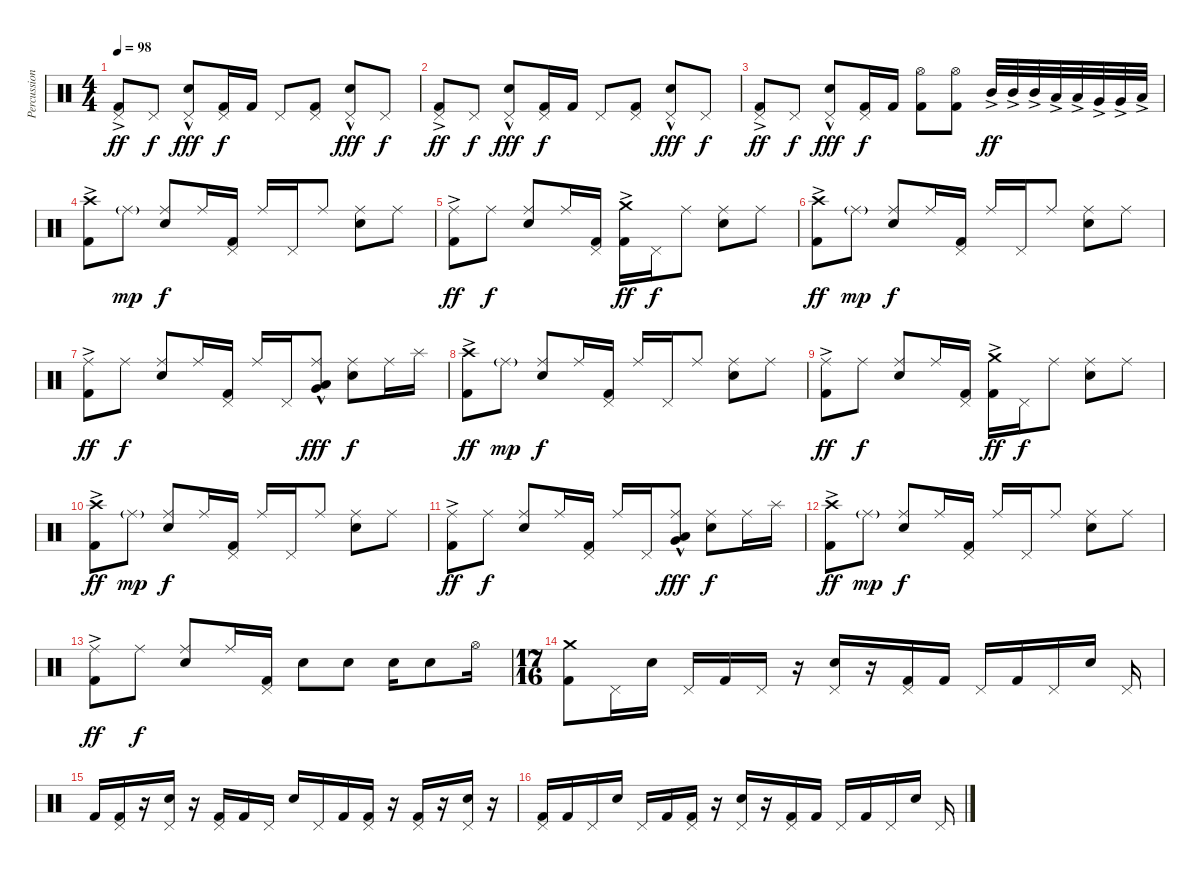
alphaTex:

\track ("Percussion" "Percussion") {instrument percussion}
\staff {score}
\articulation defaults
\ts (4 4)
\tempo 98
\clef neutral
\ks c
("Pedal Hi-Hat (hit)"{ac} "Kick (hit) 2").8{dy ff} "Pedal Hi-Hat (hit)".8{dy f} ("Pedal Hi-Hat (hit)"{hac} "Electric Snare (hit)").8{dy fff} ("Pedal Hi-Hat (hit)" "Kick (hit) 2").16{dy f} "Kick (hit) 2".16 "Pedal Hi-Hat (hit)".8 ("Pedal Hi-Hat (hit)" "Kick (hit) 2").8 ("Pedal Hi-Hat (hit)"{hac} "Electric Snare (hit)").8{dy fff} "Pedal Hi-Hat (hit)".8{dy f} |
("Pedal Hi-Hat (hit)"{ac} "Kick (hit) 2").8{dy ff} "Pedal Hi-Hat (hit)".8{dy f} ("Pedal Hi-Hat (hit)"{hac} "Electric Snare (hit)").8{dy fff} ("Pedal Hi-Hat (hit)" "Kick (hit) 2").16{dy f} "Kick (hit) 2".16 "Pedal Hi-Hat (hit)".8 ("Pedal Hi-Hat (hit)" "Kick (hit) 2").8 ("Pedal Hi-Hat (hit)"{hac} "Electric Snare (hit)").8{dy fff} "Pedal Hi-Hat (hit)".8{dy f} |
("Pedal Hi-Hat (hit)"{ac} "Kick (hit) 2").8{dy ff} "Pedal Hi-Hat (hit)".8{dy f} ("Pedal Hi-Hat (hit)"{hac} "Electric Snare (hit)").8{dy fff} ("Pedal Hi-Hat (hit)" "Kick (hit) 2").16{dy f} "Kick (hit) 2".16 ("Hi-Hat (open)" "Kick (hit) 2").8 ("Hi-Hat (open)" "Kick (hit) 2").8 "Mid Tom (hit)"{ac}.32{dy ff} "Mid Tom (hit)"{ac}.32 "Mid Tom (hit)"{ac}.32 "Low Tom (hit)"{ac}.32 "Low Tom (hit)"{ac}.32 "Very Low Tom (hit)"{ac}.32 "Very Low Tom (hit)"{ac}.32 "Low Floor Tom (hit)"{ac}.32 |
("Crash high (hit)" "Kick (hit) 2"{ac}).8 "Ride (middle)"{g}.8{dy mp} ("Ride (middle)" "Electric Snare (hit)").8{dy f} "Ride (middle)".16 ("Pedal Hi-Hat (hit)" "Kick (hit) 2").16 "Ride (middle)".16 "Pedal Hi-Hat (hit)".16 "Ride (middle)".8 ("Ride (middle)" "Electric Snare (hit)").8 "Ride (middle)".8 |
("Ride (middle)" "Kick (hit) 2"{ac}).8{dy ff} "Ride (middle)".8{dy f} ("Ride (middle)" "Electric Snare (hit)").8 "Ride (middle)".16 ("Pedal Hi-Hat (hit)" "Kick (hit) 2").16 ("Crash medium (hit)" "Kick (hit) 2"{ac}).16{dy ff} "Pedal Hi-Hat (hit)".16{dy f} "Ride (middle)".8 ("Ride (middle)" "Electric Snare (hit)").8 "Ride (middle)".8 |
("Crash high (hit)" "Kick (hit) 2"{ac}).8{dy ff} "Ride (middle)"{g}.8{dy mp} ("Ride (middle)" "Electric Snare (hit)").8{dy f} "Ride (middle)".16 ("Pedal Hi-Hat (hit)" "Kick (hit) 2").16 "Ride (middle)".16 "Pedal Hi-Hat (hit)".16 "Ride (middle)".8 ("Ride (middle)" "Electric Snare (hit)").8 "Ride (middle)".8 |
("Ride (middle)" "Kick (hit) 2"{ac}).8{dy ff} "Ride (middle)".8{dy f} ("Ride (middle)" "Electric Snare (hit)").8 "Ride (middle)".16 ("Pedal Hi-Hat (hit)" "Kick (hit) 2").16 "Ride (middle)".16 "Pedal Hi-Hat (hit)".16 ("Ride (middle)" "Low Floor Tom (hit)" "Very Low Tom (hit)"{hac}).8{dy fff} ("Ride (middle)" "Electric Snare (hit)").8{dy f} "Ride (middle)".16 "Splash (hit)".16 |
("Crash high (hit)" "Kick (hit) 2"{ac}).8{dy ff} "Ride (middle)"{g}.8{dy mp} ("Ride (middle)" "Electric Snare (hit)").8{dy f} "Ride (middle)".16 ("Pedal Hi-Hat (hit)" "Kick (hit) 2").16 "Ride (middle)".16 "Pedal Hi-Hat (hit)".16 "Ride (middle)".8 ("Ride (middle)" "Electric Snare (hit)").8 "Ride (middle)".8 |
("Ride (middle)" "Kick (hit) 2"{ac}).8{dy ff} "Ride (middle)".8{dy f} ("Ride (middle)" "Electric Snare (hit)").8 "Ride (middle)".16 ("Pedal Hi-Hat (hit)" "Kick (hit) 2").16 ("Crash medium (hit)" "Kick (hit) 2"{ac}).16{dy ff} "Pedal Hi-Hat (hit)".16{dy f} "Ride (middle)".8 ("Ride (middle)" "Electric Snare (hit)").8 "Ride (middle)".8 |
("Crash high (hit)" "Kick (hit) 2"{ac}).8{dy ff} "Ride (middle)"{g}.8{dy mp} ("Ride (middle)" "Electric Snare (hit)").8{dy f} "Ride (middle)".16 ("Pedal Hi-Hat (hit)" "Kick (hit) 2").16 "Ride (middle)".16 "Pedal Hi-Hat (hit)".16 "Ride (middle)".8 ("Ride (middle)" "Electric Snare (hit)").8 "Ride (middle)".8 |
("Ride (middle)" "Kick (hit) 2"{ac}).8{dy ff} "Ride (middle)".8{dy f} ("Ride (middle)" "Electric Snare (hit)").8 "Ride (middle)".16 ("Pedal Hi-Hat (hit)" "Kick (hit) 2").16 "Ride (middle)".16 "Pedal Hi-Hat (hit)".16 ("Ride (middle)" "Low Floor Tom (hit)" "Very Low Tom (hit)"{hac}).8{dy fff} ("Ride (middle)" "Electric Snare (hit)").8{dy f} "Ride (middle)".16 "Splash (hit)".16 |
("Crash high (hit)" "Kick (hit) 2"{ac}).8{dy ff} "Ride (middle)"{g}.8{dy mp} ("Ride (middle)" "Electric Snare (hit)").8{dy f} "Ride (middle)".16 ("Pedal Hi-Hat (hit)" "Kick (hit) 2").16 "Ride (middle)".16 "Pedal Hi-Hat (hit)".16 "Ride (middle)".8 ("Ride (middle)" "Electric Snare (hit)").8 "Ride (middle)".8 |
("Ride (middle)" "Kick (hit) 2"{ac}).8{dy ff} "Ride (middle)".8{dy f} ("Ride (middle)" "Electric Snare (hit)").8 "Ride (middle)".16 ("Pedal Hi-Hat (hit)" "Kick (hit) 2").16 "Electric Snare (hit)".8 "Electric Snare (hit)".8 "Electric Snare (hit)".16 "Electric Snare (hit)".8 "Hi-Hat (open)".16 |
\ts (17 16)
("Crash medium (hit)" "Kick (hit) 2").8 "Pedal Hi-Hat (hit)".16 "Electric Snare (hit)".16 "Pedal Hi-Hat (hit)".16 "Kick (hit) 2".16 "Pedal Hi-Hat (hit)".16 r.16 ("Pedal Hi-Hat (hit)" "Electric Snare (hit)").16 r.16 ("Pedal Hi-Hat (hit)" "Kick (hit) 2").16 "Kick (hit) 2".16 "Pedal Hi-Hat (hit)".16 "Kick (hit) 2".16 "Pedal Hi-Hat (hit)".16 "Electric Snare (hit)".16 "Pedal Hi-Hat (hit)".16 |
"Kick (hit) 2".16 ("Pedal Hi-Hat (hit)" "Kick (hit) 2").16 r.16 ("Pedal Hi-Hat (hit)" "Electric Snare (hit)").16 r.16 ("Pedal Hi-Hat (hit)" "Kick (hit) 2").16 "Kick (hit) 2".16 "Pedal Hi-Hat (hit)".16 "Electric Snare (hit)".16 "Pedal Hi-Hat (hit)".16 "Kick (hit) 2".16 ("Pedal Hi-Hat (hit)" "Kick (hit) 2").16 r.16 ("Pedal Hi-Hat (hit)" "Kick (hit) 2").16 r.16 ("Pedal Hi-Hat (hit)" "Electric Snare (hit)").16 r.16 |
("Pedal Hi-Hat (hit)" "Kick (hit) 2").16 "Kick (hit) 2".16 "Pedal Hi-Hat (hit)".16 "Electric Snare (hit)".16 "Pedal Hi-Hat (hit)".16 "Kick (hit) 2".16 ("Pedal Hi-Hat (hit)" "Kick (hit) 2").16 r.16 ("Pedal Hi-Hat (hit)" "Electric Snare (hit)").16 r.16 ("Pedal Hi-Hat (hit)" "Kick (hit) 2").16 "Kick (hit) 2".16 "Pedal Hi-Hat (hit)".16 "Kick (hit) 2".16 "Pedal Hi-Hat (hit)".16 "Electric Snare (hit)".16 "Pedal Hi-Hat (hit)".16
